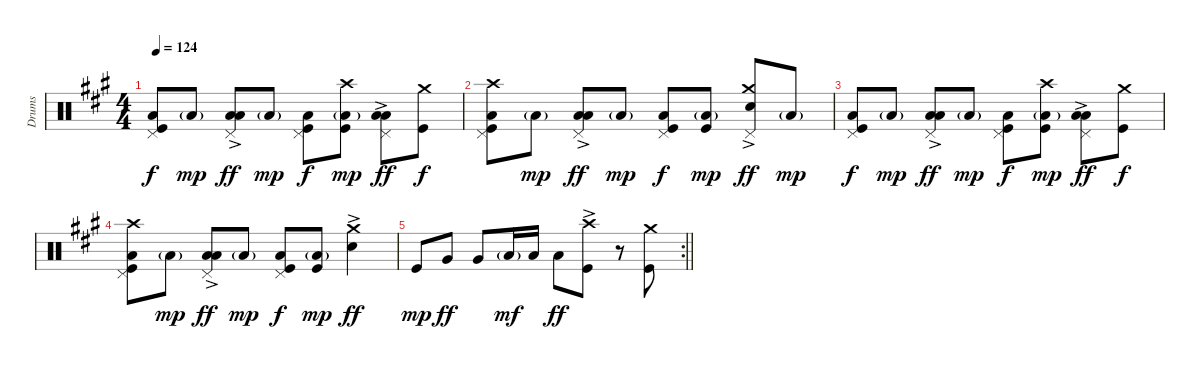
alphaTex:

\track ("Drums" "Drums") {instrument percussion}
\staff {score}
\articulation defaults
\ts (4 4)
\tempo 124
\clef neutral
\ks a
("Kick (hit)" "Low Floor Tom (hit)" "Pedal Hi-Hat (hit)").8{dy f} "Low Floor Tom (hit)"{g}.8{dy mp} ("Low Tom (hit)"{ac} "Low Floor Tom (hit)" "Pedal Hi-Hat (hit)").8{dy ff} "Low Floor Tom (hit)"{g}.8{dy mp} ("Kick (hit)" "Low Floor Tom (hit)" "Pedal Hi-Hat (hit)").8{dy f} ("Kick (hit)" "Low Floor Tom (hit)"{g} "Crash high (hit)").8{dy mp} ("Low Tom (hit)"{ac} "Low Floor Tom (hit)" "Pedal Hi-Hat (hit)").8{dy ff} ("Kick (hit)" "Crash medium (hit)").8{dy f} |
("Kick (hit)" "Low Floor Tom (hit)" "Pedal Hi-Hat (hit)" "Crash high (hit)").8 "Low Floor Tom (hit)"{g}.8{dy mp} ("Low Tom (hit)"{ac} "Low Floor Tom (hit)" "Pedal Hi-Hat (hit)").8{dy ff} "Low Floor Tom (hit)"{g}.8{dy mp} ("Kick (hit)" "Low Floor Tom (hit)" "Pedal Hi-Hat (hit)").8{dy f} ("Kick (hit)" "Low Floor Tom (hit)"{g}).8{dy mp} ("Crash medium (hit)"{ac} "Snare (hit) 2" "Pedal Hi-Hat (hit)").8{dy ff} "Low Floor Tom (hit)"{g}.8{dy mp} |
("Kick (hit)" "Low Floor Tom (hit)" "Pedal Hi-Hat (hit)").8{dy f} "Low Floor Tom (hit)"{g}.8{dy mp} ("Low Tom (hit)"{ac} "Low Floor Tom (hit)" "Pedal Hi-Hat (hit)").8{dy ff} "Low Floor Tom (hit)"{g}.8{dy mp} ("Kick (hit)" "Low Floor Tom (hit)" "Pedal Hi-Hat (hit)").8{dy f} ("Kick (hit)" "Low Floor Tom (hit)"{g} "Crash high (hit)").8{dy mp} ("Low Tom (hit)"{ac} "Low Floor Tom (hit)" "Pedal Hi-Hat (hit)").8{dy ff} ("Kick (hit)" "Crash medium (hit)").8{dy f} |
("Kick (hit)" "Low Floor Tom (hit)" "Pedal Hi-Hat (hit)" "Crash high (hit)").8 "Low Floor Tom (hit)"{g}.8{dy mp} ("Low Tom (hit)"{ac} "Low Floor Tom (hit)" "Pedal Hi-Hat (hit)").8{dy ff} "Low Floor Tom (hit)"{g}.8{dy mp} ("Kick (hit)" "Low Floor Tom (hit)" "Pedal Hi-Hat (hit)").8{dy f} ("Kick (hit)" "Low Floor Tom (hit)"{g}).8{dy mp} ("Snare (hit) 2"{ac} "Crash medium (hit)"{ac}).4{dy ff} |
\rc 2
\barLineRight lightlight "Kick (hit)".8{dy mp} "Very Low Tom (hit)".8{dy ff} "Very Low Tom (hit)".8 "Low Floor Tom (hit)"{g}.16{dy mf} "Low Floor Tom (hit)".16 "Low Floor Tom (hit)".8{dy ff}
("Kick (hit)"{ac} "Crash high (hit)"{ac}).8 r.8 ("Kick (hit)" "Crash medium (hit)").8
